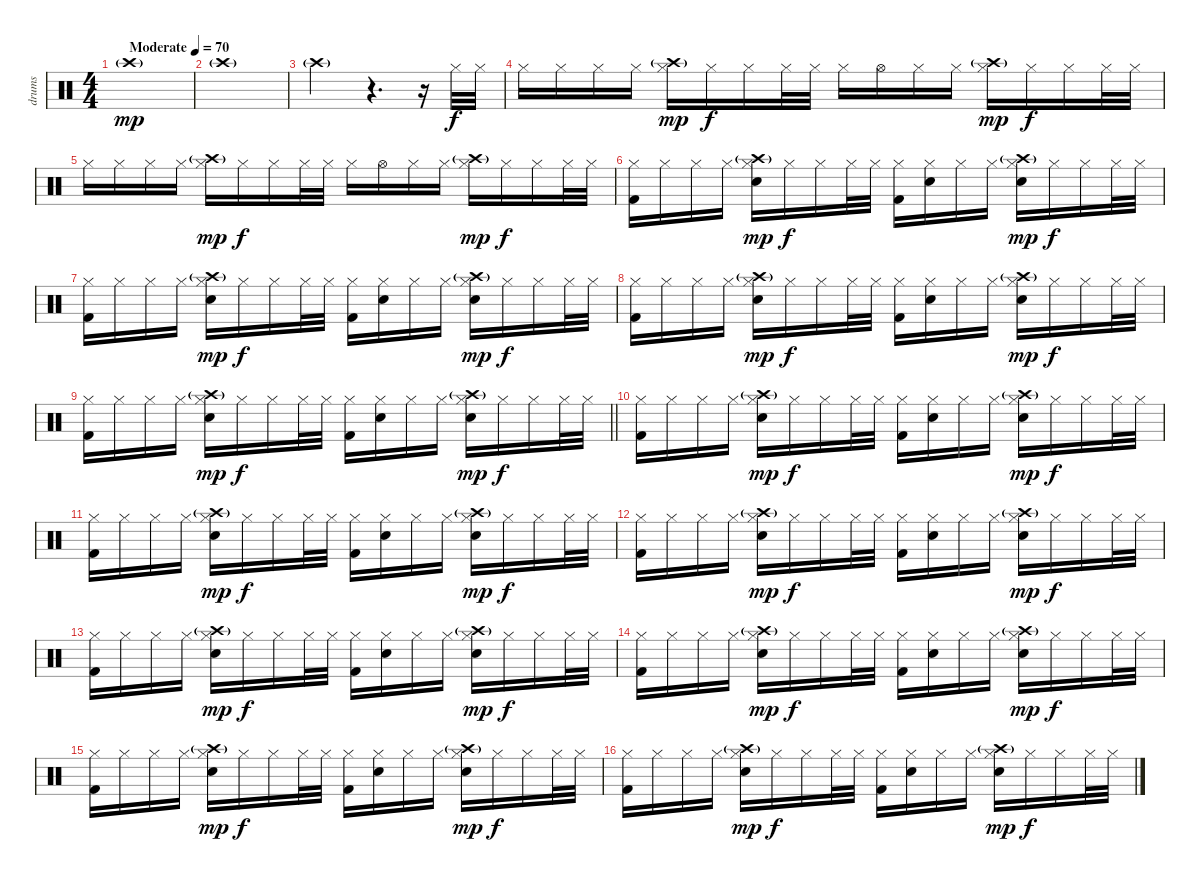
\track ("drums" "drums") {instrument percussion}
\staff {score}
\articulation defaults
\ts (4 4)
\tempo (70 "Moderate")
\clef neutral
\ks c "Crash high (hit)"{g}.1{dy mp}
|
"Crash high (hit)"{g}.1 |
"Crash high (hit)"{g}.2 r.4{d} r.16 "Hi-Hat (closed)".32{dy f} "Hi-Hat (closed)".32 |
"Hi-Hat (closed)".16 "Hi-Hat (closed)".16 "Hi-Hat (closed)".16 "Hi-Hat (closed)".16 ("Hi-Hat (closed)" "Crash high (hit)"{g}).16{dy mp} "Hi-Hat (closed)".16{dy f} "Hi-Hat (closed)".16 "Hi-Hat (closed)".32 "Hi-Hat (closed)".32 "Hi-Hat (closed)".16 "Hi-Hat (open)".16 "Hi-Hat (closed)".16 "Hi-Hat (closed)".16 ("Hi-Hat (closed)" "Crash high (hit)"{g}).16{dy mp} "Hi-Hat (closed)".16{dy f} "Hi-Hat (closed)".16 "Hi-Hat (closed)".32 "Hi-Hat (closed)".32 |
"Hi-Hat (closed)".16 "Hi-Hat (closed)".16 "Hi-Hat (closed)".16 "Hi-Hat (closed)".16 ("Hi-Hat (closed)" "Crash high (hit)"{g}).16{dy mp} "Hi-Hat (closed)".16{dy f} "Hi-Hat (closed)".16 "Hi-Hat (closed)".32 "Hi-Hat (closed)".32 "Hi-Hat (closed)".16 "Hi-Hat (open)".16 "Hi-Hat (closed)".16 "Hi-Hat (closed)".16 ("Hi-Hat (closed)" "Crash high (hit)"{g}).16{dy mp} "Hi-Hat (closed)".16{dy f} "Hi-Hat (closed)".16 "Hi-Hat (closed)".32 "Hi-Hat (closed)".32 |
("Hi-Hat (closed)" "Kick (hit) 2").16 "Hi-Hat (closed)".16 "Hi-Hat (closed)".16 "Hi-Hat (closed)".16 ("Hi-Hat (closed)" "Crash high (hit)"{g} "Snare (hit) 2").16{dy mp} "Hi-Hat (closed)".16{dy f} "Hi-Hat (closed)".16 "Hi-Hat (closed)".32 "Hi-Hat (closed)".32 ("Hi-Hat (closed)" "Kick (hit) 2").16 ("Hi-Hat (closed)" "Snare (hit) 2").16 "Hi-Hat (closed)".16 "Hi-Hat (closed)".16 ("Hi-Hat (closed)" "Crash high (hit)"{g} "Snare (hit) 2").16{dy mp} "Hi-Hat (closed)".16{dy f} "Hi-Hat (closed)".16 "Hi-Hat (closed)".32 "Hi-Hat (closed)".32 |
("Hi-Hat (closed)" "Kick (hit) 2").16 "Hi-Hat (closed)".16 "Hi-Hat (closed)".16 "Hi-Hat (closed)".16 ("Hi-Hat (closed)" "Crash high (hit)"{g} "Snare (hit) 2").16{dy mp} "Hi-Hat (closed)".16{dy f} "Hi-Hat (closed)".16 "Hi-Hat (closed)".32 "Hi-Hat (closed)".32 ("Hi-Hat (closed)" "Kick (hit) 2").16 ("Hi-Hat (closed)" "Snare (hit) 2").16 "Hi-Hat (closed)".16 "Hi-Hat (closed)".16 ("Hi-Hat (closed)" "Crash high (hit)"{g} "Snare (hit) 2").16{dy mp} "Hi-Hat (closed)".16{dy f} "Hi-Hat (closed)".16 "Hi-Hat (closed)".32 "Hi-Hat (closed)".32 |
("Hi-Hat (closed)" "Kick (hit) 2").16 "Hi-Hat (closed)".16 "Hi-Hat (closed)".16 "Hi-Hat (closed)".16 ("Hi-Hat (closed)" "Crash high (hit)"{g} "Snare (hit) 2").16{dy mp} "Hi-Hat (closed)".16{dy f} "Hi-Hat (closed)".16 "Hi-Hat (closed)".32 "Hi-Hat (closed)".32 ("Hi-Hat (closed)" "Kick (hit) 2").16 ("Hi-Hat (closed)" "Snare (hit) 2").16 "Hi-Hat (closed)".16 "Hi-Hat (closed)".16 ("Hi-Hat (closed)" "Crash high (hit)"{g} "Snare (hit) 2").16{dy mp} "Hi-Hat (closed)".16{dy f} "Hi-Hat (closed)".16 "Hi-Hat (closed)".32 "Hi-Hat (closed)".32 |
\barLineRight lightlight
("Hi-Hat (closed)" "Kick (hit) 2").16 "Hi-Hat (closed)".16 "Hi-Hat (closed)".16 "Hi-Hat (closed)".16 ("Hi-Hat (closed)" "Crash high (hit)"{g} "Snare (hit) 2").16{dy mp} "Hi-Hat (closed)".16{dy f} "Hi-Hat (closed)".16 "Hi-Hat (closed)".32 "Hi-Hat (closed)".32 ("Hi-Hat (closed)" "Kick (hit) 2").16 ("Hi-Hat (closed)" "Snare (hit) 2").16 "Hi-Hat (closed)".16 "Hi-Hat (closed)".16 ("Hi-Hat (closed)" "Crash high (hit)"{g} "Snare (hit) 2").16{dy mp} "Hi-Hat (closed)".16{dy f} "Hi-Hat (closed)".16 "Hi-Hat (closed)".32 "Hi-Hat (closed)".32 |
("Hi-Hat (closed)" "Kick (hit) 2").16 "Hi-Hat (closed)".16 "Hi-Hat (closed)".16 "Hi-Hat (closed)".16 ("Hi-Hat (closed)" "Crash high (hit)"{g} "Snare (hit) 2").16{dy mp} "Hi-Hat (closed)".16{dy f} "Hi-Hat (closed)".16 "Hi-Hat (closed)".32 "Hi-Hat (closed)".32 ("Hi-Hat (closed)" "Kick (hit) 2").16 ("Hi-Hat (closed)" "Snare (hit) 2").16 "Hi-Hat (closed)".16 "Hi-Hat (closed)".16 ("Hi-Hat (closed)" "Crash high (hit)"{g} "Snare (hit) 2").16{dy mp} "Hi-Hat (closed)".16{dy f} "Hi-Hat (closed)".16 "Hi-Hat (closed)".32 "Hi-Hat (closed)".32 |
("Hi-Hat (closed)" "Kick (hit) 2").16 "Hi-Hat (closed)".16 "Hi-Hat (closed)".16 "Hi-Hat (closed)".16 ("Hi-Hat (closed)" "Crash high (hit)"{g} "Snare (hit) 2").16{dy mp} "Hi-Hat (closed)".16{dy f} "Hi-Hat (closed)".16 "Hi-Hat (closed)".32 "Hi-Hat (closed)".32 ("Hi-Hat (closed)" "Kick (hit) 2").16 ("Hi-Hat (closed)" "Snare (hit) 2").16 "Hi-Hat (closed)".16 "Hi-Hat (closed)".16 ("Hi-Hat (closed)" "Crash high (hit)"{g} "Snare (hit) 2").16{dy mp} "Hi-Hat (closed)".16{dy f} "Hi-Hat (closed)".16 "Hi-Hat (closed)".32 "Hi-Hat (closed)".32 |
("Hi-Hat (closed)" "Kick (hit) 2").16 "Hi-Hat (closed)".16 "Hi-Hat (closed)".16 "Hi-Hat (closed)".16 ("Hi-Hat (closed)" "Crash high (hit)"{g} "Snare (hit) 2").16{dy mp} "Hi-Hat (closed)".16{dy f} "Hi-Hat (closed)".16 "Hi-Hat (closed)".32 "Hi-Hat (closed)".32 ("Hi-Hat (closed)" "Kick (hit) 2").16 ("Hi-Hat (closed)" "Snare (hit) 2").16 "Hi-Hat (closed)".16 "Hi-Hat (closed)".16 ("Hi-Hat (closed)" "Crash high (hit)"{g} "Snare (hit) 2").16{dy mp} "Hi-Hat (closed)".16{dy f} "Hi-Hat (closed)".16 "Hi-Hat (closed)".32 "Hi-Hat (closed)".32 |
("Hi-Hat (closed)" "Kick (hit) 2").16 "Hi-Hat (closed)".16 "Hi-Hat (closed)".16 "Hi-Hat (closed)".16 ("Hi-Hat (closed)" "Crash high (hit)"{g} "Snare (hit) 2").16{dy mp} "Hi-Hat (closed)".16{dy f} "Hi-Hat (closed)".16 "Hi-Hat (closed)".32 "Hi-Hat (closed)".32 ("Hi-Hat (closed)" "Kick (hit) 2").16 ("Hi-Hat (closed)" "Snare (hit) 2").16 "Hi-Hat (closed)".16 "Hi-Hat (closed)".16 ("Hi-Hat (closed)" "Crash high (hit)"{g} "Snare (hit) 2").16{dy mp} "Hi-Hat (closed)".16{dy f} "Hi-Hat (closed)".16 "Hi-Hat (closed)".32 "Hi-Hat (closed)".32 |
("Hi-Hat (closed)" "Kick (hit) 2").16 "Hi-Hat (closed)".16 "Hi-Hat (closed)".16 "Hi-Hat (closed)".16 ("Hi-Hat (closed)" "Crash high (hit)"{g} "Snare (hit) 2").16{dy mp} "Hi-Hat (closed)".16{dy f} "Hi-Hat (closed)".16 "Hi-Hat (closed)".32 "Hi-Hat (closed)".32 ("Hi-Hat (closed)" "Kick (hit) 2").16 ("Hi-Hat (closed)" "Snare (hit) 2").16 "Hi-Hat (closed)".16 "Hi-Hat (closed)".16 ("Hi-Hat (closed)" "Crash high (hit)"{g} "Snare (hit) 2").16{dy mp} "Hi-Hat (closed)".16{dy f} "Hi-Hat (closed)".16 "Hi-Hat (closed)".32 "Hi-Hat (closed)".32 |
("Hi-Hat (closed)" "Kick (hit) 2").16 "Hi-Hat (closed)".16 "Hi-Hat (closed)".16 "Hi-Hat (closed)".16 ("Hi-Hat (closed)" "Crash high (hit)"{g} "Snare (hit) 2").16{dy mp} "Hi-Hat (closed)".16{dy f} "Hi-Hat (closed)".16 "Hi-Hat (closed)".32 "Hi-Hat (closed)".32 ("Hi-Hat (closed)" "Kick (hit) 2").16 ("Hi-Hat (closed)" "Snare (hit) 2").16 "Hi-Hat (closed)".16 "Hi-Hat (closed)".16 ("Hi-Hat (closed)" "Crash high (hit)"{g} "Snare (hit) 2").16{dy mp} "Hi-Hat (closed)".16{dy f} "Hi-Hat (closed)".16 "Hi-Hat (closed)".32 "Hi-Hat (closed)".32 |
("Hi-Hat (closed)" "Kick (hit) 2").16 "Hi-Hat (closed)".16 "Hi-Hat (closed)".16 "Hi-Hat (closed)".16 ("Hi-Hat (closed)" "Crash high (hit)"{g} "Snare (hit) 2").16{dy mp} "Hi-Hat (closed)".16{dy f} "Hi-Hat (closed)".16 "Hi-Hat (closed)".32 "Hi-Hat (closed)".32 ("Hi-Hat (closed)" "Kick (hit) 2").16 ("Hi-Hat (closed)" "Snare (hit) 2").16 "Hi-Hat (closed)".16 "Hi-Hat (closed)".16 ("Hi-Hat (closed)" "Crash high (hit)"{g} "Snare (hit) 2").16{dy mp} "Hi-Hat (closed)".16{dy f} "Hi-Hat (closed)".16 "Hi-Hat (closed)".32 "Hi-Hat (closed)".32
